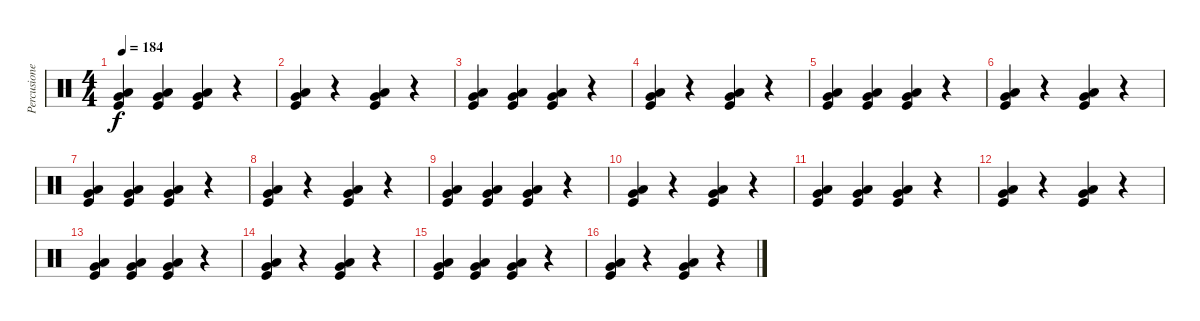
\track ("Percusiones" "Percusione") {instrument percussion}
\staff {score}
\articulation defaults
\ts (4 4)
\tempo 184
\clef neutral
\ks c
("Low Floor Tom (hit)" "Very Low Tom (hit)" "Kick (hit)").4{dy f} ("Low Floor Tom (hit)" "Very Low Tom (hit)" "Kick (hit)").4 ("Low Floor Tom (hit)" "Very Low Tom (hit)" "Kick (hit)").4 r.4 |
("Low Floor Tom (hit)" "Very Low Tom (hit)" "Kick (hit)").4 r.4 ("Low Floor Tom (hit)" "Very Low Tom (hit)" "Kick (hit)").4 r.4 |
("Low Floor Tom (hit)" "Very Low Tom (hit)" "Kick (hit)").4 ("Low Floor Tom (hit)" "Very Low Tom (hit)" "Kick (hit)").4 ("Low Floor Tom (hit)" "Very Low Tom (hit)" "Kick (hit)").4 r.4 |
("Low Floor Tom (hit)" "Very Low Tom (hit)" "Kick (hit)").4 r.4 ("Low Floor Tom (hit)" "Very Low Tom (hit)" "Kick (hit)").4 r.4 |
("Low Floor Tom (hit)" "Very Low Tom (hit)" "Kick (hit)").4 ("Low Floor Tom (hit)" "Very Low Tom (hit)" "Kick (hit)").4 ("Low Floor Tom (hit)" "Very Low Tom (hit)" "Kick (hit)").4 r.4 |
("Low Floor Tom (hit)" "Very Low Tom (hit)" "Kick (hit)").4 r.4 ("Low Floor Tom (hit)" "Very Low Tom (hit)" "Kick (hit)").4 r.4 |
("Low Floor Tom (hit)" "Very Low Tom (hit)" "Kick (hit)").4 ("Low Floor Tom (hit)" "Very Low Tom (hit)" "Kick (hit)").4 ("Low Floor Tom (hit)" "Very Low Tom (hit)" "Kick (hit)").4 r.4 |
("Low Floor Tom (hit)" "Very Low Tom (hit)" "Kick (hit)").4 r.4 ("Low Floor Tom (hit)" "Very Low Tom (hit)" "Kick (hit)").4 r.4 |
("Low Floor Tom (hit)" "Very Low Tom (hit)" "Kick (hit)").4 ("Low Floor Tom (hit)" "Very Low Tom (hit)" "Kick (hit)").4 ("Low Floor Tom (hit)" "Very Low Tom (hit)" "Kick (hit)").4 r.4 |
("Low Floor Tom (hit)" "Very Low Tom (hit)" "Kick (hit)").4 r.4 ("Low Floor Tom (hit)" "Very Low Tom (hit)" "Kick (hit)").4 r.4 |
("Low Floor Tom (hit)" "Very Low Tom (hit)" "Kick (hit)").4 ("Low Floor Tom (hit)" "Very Low Tom (hit)" "Kick (hit)").4 ("Low Floor Tom (hit)" "Very Low Tom (hit)" "Kick (hit)").4 r.4 |
("Low Floor Tom (hit)" "Very Low Tom (hit)" "Kick (hit)").4 r.4 ("Low Floor Tom (hit)" "Very Low Tom (hit)" "Kick (hit)").4 r.4 |
("Low Floor Tom (hit)" "Very Low Tom (hit)" "Kick (hit)").4 ("Low Floor Tom (hit)" "Very Low Tom (hit)" "Kick (hit)").4 ("Low Floor Tom (hit)" "Very Low Tom (hit)" "Kick (hit)").4 r.4 |
("Low Floor Tom (hit)" "Very Low Tom (hit)" "Kick (hit)").4 r.4 ("Low Floor Tom (hit)" "Very Low Tom (hit)" "Kick (hit)").4 r.4 |
("Low Floor Tom (hit)" "Very Low Tom (hit)" "Kick (hit)").4 ("Low Floor Tom (hit)" "Very Low Tom (hit)" "Kick (hit)").4 ("Low Floor Tom (hit)" "Very Low Tom (hit)" "Kick (hit)").4 r.4 |
("Low Floor Tom (hit)" "Very Low Tom (hit)" "Kick (hit)").4 r.4 ("Low Floor Tom (hit)" "Very Low Tom (hit)" "Kick (hit)").4 r.4
